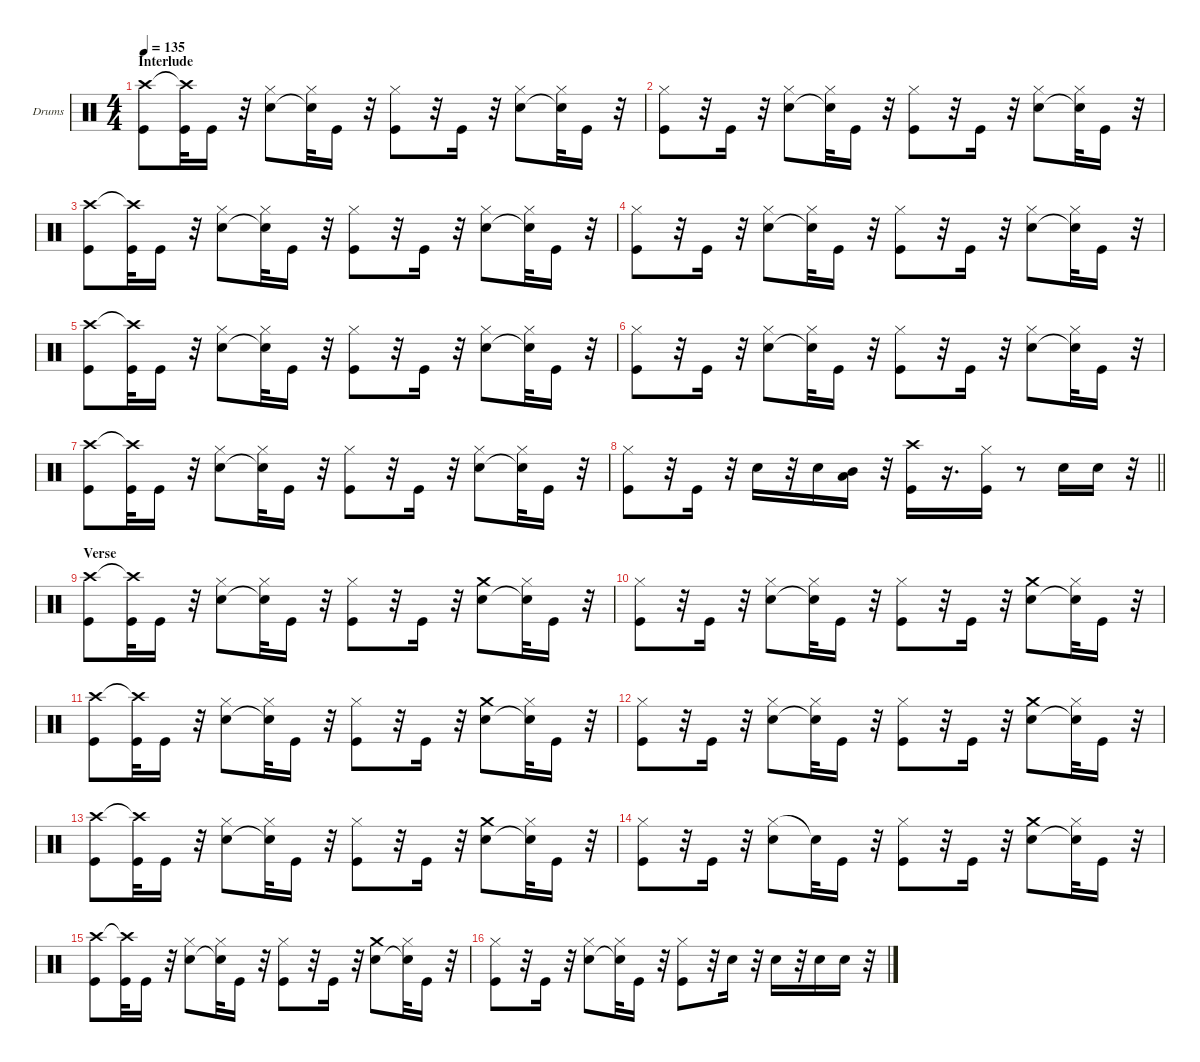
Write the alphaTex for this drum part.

\hideDynamics
\bracketExtendMode groupsimilarinstruments
\firstSystemTrackNameOrientation horizontal
\otherSystemsTrackNameOrientation horizontal
\track ("Drumkit" "Drums") {solo instrument percussion}
\staff {score}
\articulation defaults
\ts (4 4)
\section ("" "Interlude")
\tempo 135
\clef neutral
\scale
0.333333
\ks c
("Kick (hit)" "Crash high (hit)").8{dy fff} ("Kick (hit)" "Crash high (hit)"{t}).32 "Kick (hit)".16 r.32 ("Snare (hit) 2" "Hi-Hat (closed)").8 ("Snare (hit) 2"{t} "Hi-Hat (closed)").32 "Kick (hit)".16 r.32 ("Kick (hit)" "Hi-Hat (closed)").8 r.32 "Kick (hit)".16 r.32 ("Snare (hit) 2" "Hi-Hat (closed)").8 ("Snare (hit) 2"{t} "Hi-Hat (closed)").32 "Kick (hit)".16 r.32 |
\scale
0.333333 ("Kick (hit)" "Hi-Hat (closed)").8 r.32 "Kick (hit)".16 r.32 ("Hi-Hat (closed)" "Snare (hit) 2").8 ("Hi-Hat (closed)" "Snare (hit) 2"{t}).32 "Kick (hit)".16 r.32 ("Kick (hit)" "Hi-Hat (closed)").8 r.32 "Kick (hit)".16 r.32 ("Hi-Hat (closed)" "Snare (hit) 2").8 ("Hi-Hat (closed)" "Snare (hit) 2"{t}).32 "Kick (hit)".16 r.32 |
\scale
0.333333 ("Kick (hit)" "Crash high (hit)").8 ("Kick (hit)" "Crash high (hit)"{t}).32 "Kick (hit)".16 r.32 ("Snare (hit) 2" "Hi-Hat (closed)").8 ("Snare (hit) 2"{t} "Hi-Hat (closed)").32 "Kick (hit)".16 r.32 ("Kick (hit)" "Hi-Hat (closed)").8 r.32 "Kick (hit)".16 r.32 ("Snare (hit) 2" "Hi-Hat (closed)").8 ("Snare (hit) 2"{t} "Hi-Hat (closed)").32 "Kick (hit)".16 r.32 |
\scale
0.333333 ("Kick (hit)" "Hi-Hat (closed)").8 r.32 "Kick (hit)".16 r.32 ("Hi-Hat (closed)" "Snare (hit) 2").8 ("Hi-Hat (closed)" "Snare (hit) 2"{t}).32 "Kick (hit)".16 r.32 ("Kick (hit)" "Hi-Hat (closed)").8 r.32 "Kick (hit)".16 r.32 ("Hi-Hat (closed)" "Snare (hit) 2").8 ("Hi-Hat (closed)" "Snare (hit) 2"{t}).32 "Kick (hit)".16 r.32 |
\scale
0.333333 ("Kick (hit)" "Crash high (hit)").8 ("Kick (hit)" "Crash high (hit)"{t}).32 "Kick (hit)".16 r.32 ("Snare (hit) 2" "Hi-Hat (closed)").8 ("Snare (hit) 2"{t} "Hi-Hat (closed)").32 "Kick (hit)".16 r.32 ("Kick (hit)" "Hi-Hat (closed)").8 r.32 "Kick (hit)".16 r.32 ("Snare (hit) 2" "Hi-Hat (closed)").8 ("Snare (hit) 2"{t} "Hi-Hat (closed)").32 "Kick (hit)".16 r.32 |
\scale
0.333333 ("Kick (hit)" "Hi-Hat (closed)").8 r.32 "Kick (hit)".16 r.32 ("Hi-Hat (closed)" "Snare (hit) 2").8 ("Hi-Hat (closed)" "Snare (hit) 2"{t}).32 "Kick (hit)".16 r.32 ("Kick (hit)" "Hi-Hat (closed)").8 r.32 "Kick (hit)".16 r.32 ("Hi-Hat (closed)" "Snare (hit) 2").8 ("Hi-Hat (closed)" "Snare (hit) 2"{t}).32 "Kick (hit)".16 r.32 |
\scale
0.333333 ("Kick (hit)" "Crash high (hit)").8 ("Kick (hit)" "Crash high (hit)"{t}).32 "Kick (hit)".16 r.32 ("Snare (hit) 2" "Hi-Hat (closed)").8 ("Snare (hit) 2"{t} "Hi-Hat (closed)").32 "Kick (hit)".16 r.32 ("Kick (hit)" "Hi-Hat (closed)").8 r.32 "Kick (hit)".16 r.32 ("Snare (hit) 2" "Hi-Hat (closed)").8 ("Snare (hit) 2"{t} "Hi-Hat (closed)").32 "Kick (hit)".16 r.32 |
\scale
0.333333
\barLineRight lightlight
("Hi-Hat (closed)" "Kick (hit)").8 r.32 "Kick (hit)".16 r.32 "Snare (hit) 2".16 r.32 "Snare (hit) 2".16 ("Mid Tom (hit)" "Low Tom (hit)").16 r.32 ("Crash high (hit)" "Kick (hit)").16 r.16{d} ("Hi-Hat (closed)" "Kick (hit)").16 r.8 "Snare (hit) 2".16 "Snare (hit) 2".16 r.32 |
\section ("" "Verse")
\scale
0.333333 ("Crash high (hit)" "Kick (hit)").8 ("Crash high (hit)"{t} "Kick (hit)").32 "Kick (hit)".16 r.32 ("Hi-Hat (closed)" "Snare (hit) 2").8 ("Hi-Hat (closed)" "Snare (hit) 2"{t}).32 "Kick (hit)".16 r.32 ("Hi-Hat (closed)" "Kick (hit)").8 r.32 "Kick (hit)".16 r.32 ("Crash medium (hit)" "Snare (hit) 2").8 ("Hi-Hat (closed)" "Snare (hit) 2"{t}).32 "Kick (hit)".16 r.32 |
\scale
0.333333 ("Kick (hit)" "Hi-Hat (closed)").8 r.32 "Kick (hit)".16 r.32 ("Hi-Hat (closed)" "Snare (hit) 2").8 ("Hi-Hat (closed)" "Snare (hit) 2"{t}).32 "Kick (hit)".16 r.32 ("Hi-Hat (closed)" "Kick (hit)").8 r.32 "Kick (hit)".16 r.32 ("Crash medium (hit)" "Snare (hit) 2").8 ("Hi-Hat (closed)" "Snare (hit) 2"{t}).32 "Kick (hit)".16 r.32 |
\scale
0.333333 ("Crash high (hit)" "Kick (hit)").8 ("Crash high (hit)"{t} "Kick (hit)").32 "Kick (hit)".16 r.32 ("Hi-Hat (closed)" "Snare (hit) 2").8 ("Hi-Hat (closed)" "Snare (hit) 2"{t}).32 "Kick (hit)".16 r.32 ("Hi-Hat (closed)" "Kick (hit)").8 r.32 "Kick (hit)".16 r.32 ("Crash medium (hit)" "Snare (hit) 2").8 ("Hi-Hat (closed)" "Snare (hit) 2"{t}).32 "Kick (hit)".16 r.32 |
\scale
0.333333 ("Kick (hit)" "Hi-Hat (closed)").8 r.32 "Kick (hit)".16 r.32 ("Hi-Hat (closed)" "Snare (hit) 2").8 ("Hi-Hat (closed)" "Snare (hit) 2"{t}).32 "Kick (hit)".16 r.32 ("Hi-Hat (closed)" "Kick (hit)").8 r.32 "Kick (hit)".16 r.32 ("Crash medium (hit)" "Snare (hit) 2").8 ("Hi-Hat (closed)" "Snare (hit) 2"{t}).32 "Kick (hit)".16 r.32 |
\scale
0.333333 ("Crash high (hit)" "Kick (hit)").8 ("Crash high (hit)"{t} "Kick (hit)").32 "Kick (hit)".16 r.32 ("Hi-Hat (closed)" "Snare (hit) 2").8 ("Hi-Hat (closed)" "Snare (hit) 2"{t}).32 "Kick (hit)".16 r.32 ("Hi-Hat (closed)" "Kick (hit)").8 r.32 "Kick (hit)".16 r.32 ("Crash medium (hit)" "Snare (hit) 2").8 ("Hi-Hat (closed)" "Snare (hit) 2"{t}).32 "Kick (hit)".16 r.32 |
\scale
0.333333 ("Kick (hit)" "Hi-Hat (closed)").8 r.32 "Kick (hit)".16 r.32 ("Hi-Hat (closed)" "Snare (hit) 2").8 "Snare (hit) 2"{t}.32 "Kick (hit)".16 r.32 ("Hi-Hat (closed)" "Kick (hit)").8 r.32 "Kick (hit)".16 r.32 ("Crash medium (hit)" "Snare (hit) 2").8 ("Hi-Hat (closed)" "Snare (hit) 2"{t}).32 "Kick (hit)".16 r.32 |
\scale
0.333333 ("Crash high (hit)" "Kick (hit)").8 ("Crash high (hit)"{t} "Kick (hit)").32 "Kick (hit)".16 r.32 ("Hi-Hat (closed)" "Snare (hit) 2").8 ("Hi-Hat (closed)" "Snare (hit) 2"{t}).32 "Kick (hit)".16 r.32 ("Hi-Hat (closed)" "Kick (hit)").8 r.32 "Kick (hit)".16 r.32 ("Crash medium (hit)" "Snare (hit) 2").8 ("Hi-Hat (closed)" "Snare (hit) 2"{t}).32 "Kick (hit)".16 r.32 |
\scale
0.333333 ("Kick (hit)" "Hi-Hat (closed)").8 r.32 "Kick (hit)".16 r.32 ("Hi-Hat (closed)" "Snare (hit) 2").8 ("Hi-Hat (closed)" "Snare (hit) 2"{t}).32 "Kick (hit)".16 r.32 ("Hi-Hat (closed)" "Kick (hit)").8 r.32 "Snare (hit) 2".16 r.32 "Snare (hit) 2".16 r.32 "Snare (hit) 2".16 "Snare (hit) 2".16 r.32
